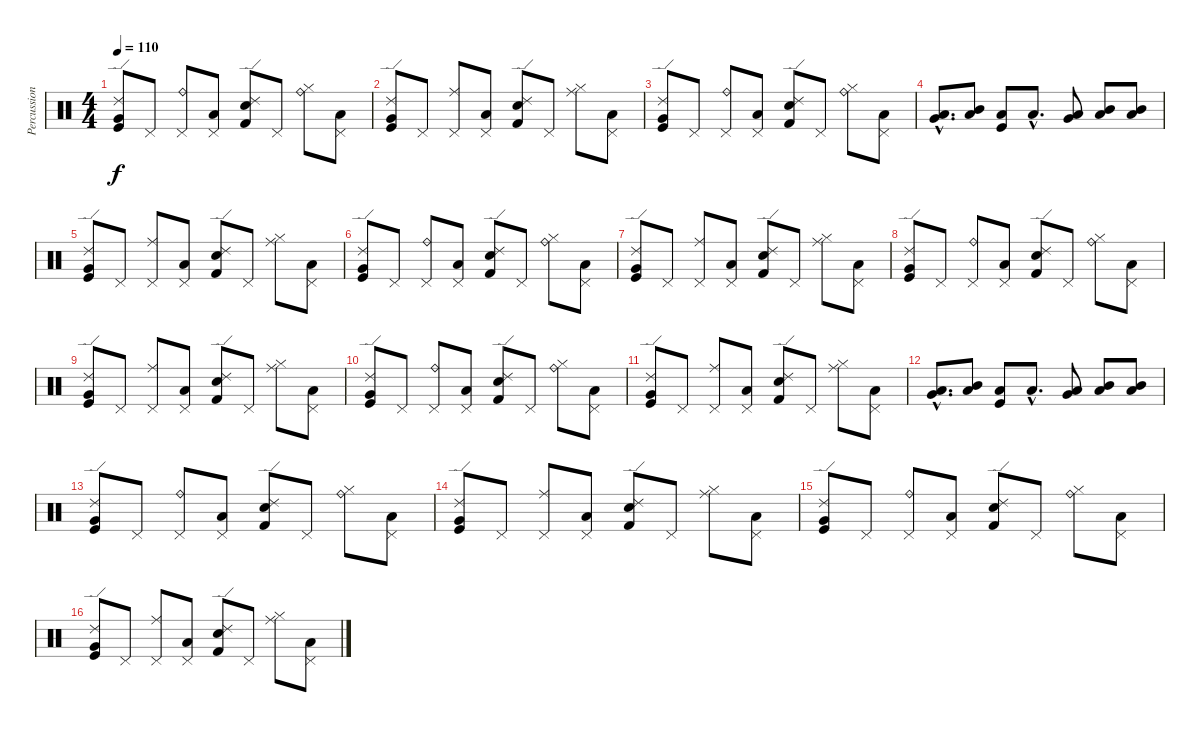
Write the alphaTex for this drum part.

\track ("Percussions" "Percussion") {instrument percussion}
\staff {score}
\articulation defaults
\ts (4 4)
\tempo 110
\clef neutral
\ks c
("Ride (edge) 2" "Very Low Tom (hit)" "Kick (hit)").8{dy f} "Pedal Hi-Hat (hit)".8 ("Ride (bell)" "Pedal Hi-Hat (hit)").8 ("Pedal Hi-Hat (hit)" "Low Tom (hit)").8 ("Ride (edge) 2" "Kick (hit) 2" "Snare (hit) 2").8 "Pedal Hi-Hat (hit)".8 ("Hi-Hat (closed)" "Ride (bell)").8 ("Pedal Hi-Hat (hit)" "Low Tom (hit)").8 |
("Ride (edge) 2" "Very Low Tom (hit)" "Kick (hit)").8 "Pedal Hi-Hat (hit)".8 ("Ride (middle)" "Pedal Hi-Hat (hit)").8 ("Pedal Hi-Hat (hit)" "Low Tom (hit)").8 ("Ride (edge) 2" "Kick (hit) 2" "Snare (hit) 2").8 "Pedal Hi-Hat (hit)".8 ("Hi-Hat (closed)" "Ride (middle)").8 ("Pedal Hi-Hat (hit)" "Low Tom (hit)").8 |
("Ride (edge) 2" "Very Low Tom (hit)" "Kick (hit)").8 "Pedal Hi-Hat (hit)".8 ("Ride (bell)" "Pedal Hi-Hat (hit)").8 ("Pedal Hi-Hat (hit)" "Low Tom (hit)").8 ("Ride (edge) 2" "Kick (hit) 2" "Snare (hit) 2").8 "Pedal Hi-Hat (hit)".8 ("Hi-Hat (closed)" "Ride (bell)").8 ("Pedal Hi-Hat (hit)" "Low Tom (hit)").8 |
("Low Tom (hit)"{hac} "Very Low Tom (hit)"{hac}).8{d} ("Mid Tom (hit)" "Low Tom (hit)").8 ("Low Tom (hit)" "Kick (hit)").8 "Low Floor Tom (hit)"{hac}.8{d} ("Very Low Tom (hit)" "Low Tom (hit)").8 ("Low Tom (hit)" "Mid Tom (hit)").8 ("Mid Tom (hit)" "Low Tom (hit)").8 |
("Ride (edge) 2" "Very Low Tom (hit)" "Kick (hit)").8 "Pedal Hi-Hat (hit)".8 ("Ride (middle)" "Pedal Hi-Hat (hit)").8 ("Pedal Hi-Hat (hit)" "Low Tom (hit)").8 ("Ride (edge) 2" "Kick (hit) 2" "Snare (hit) 2").8 "Pedal Hi-Hat (hit)".8 ("Hi-Hat (closed)" "Ride (middle)").8 ("Pedal Hi-Hat (hit)" "Low Tom (hit)").8 |
("Ride (edge) 2" "Very Low Tom (hit)" "Kick (hit)").8 "Pedal Hi-Hat (hit)".8 ("Ride (bell)" "Pedal Hi-Hat (hit)").8 ("Pedal Hi-Hat (hit)" "Low Tom (hit)").8 ("Ride (edge) 2" "Kick (hit) 2" "Snare (hit) 2").8 "Pedal Hi-Hat (hit)".8 ("Hi-Hat (closed)" "Ride (bell)").8 ("Pedal Hi-Hat (hit)" "Low Tom (hit)").8 |
("Ride (edge) 2" "Very Low Tom (hit)" "Kick (hit)").8 "Pedal Hi-Hat (hit)".8 ("Ride (middle)" "Pedal Hi-Hat (hit)").8 ("Pedal Hi-Hat (hit)" "Low Tom (hit)").8 ("Ride (edge) 2" "Kick (hit) 2" "Snare (hit) 2").8 "Pedal Hi-Hat (hit)".8 ("Hi-Hat (closed)" "Ride (middle)").8 ("Pedal Hi-Hat (hit)" "Low Tom (hit)").8 |
("Ride (edge) 2" "Very Low Tom (hit)" "Kick (hit)").8 "Pedal Hi-Hat (hit)".8 ("Ride (bell)" "Pedal Hi-Hat (hit)").8 ("Pedal Hi-Hat (hit)" "Low Tom (hit)").8 ("Ride (edge) 2" "Kick (hit) 2" "Snare (hit) 2").8 "Pedal Hi-Hat (hit)".8 ("Hi-Hat (closed)" "Ride (bell)").8 ("Pedal Hi-Hat (hit)" "Low Tom (hit)").8 |
("Ride (edge) 2" "Very Low Tom (hit)" "Kick (hit)").8 "Pedal Hi-Hat (hit)".8 ("Ride (middle)" "Pedal Hi-Hat (hit)").8 ("Pedal Hi-Hat (hit)" "Low Tom (hit)").8 ("Ride (edge) 2" "Kick (hit) 2" "Snare (hit) 2").8 "Pedal Hi-Hat (hit)".8 ("Hi-Hat (closed)" "Ride (middle)").8 ("Pedal Hi-Hat (hit)" "Low Tom (hit)").8 |
("Ride (edge) 2" "Very Low Tom (hit)" "Kick (hit)").8 "Pedal Hi-Hat (hit)".8 ("Ride (bell)" "Pedal Hi-Hat (hit)").8 ("Pedal Hi-Hat (hit)" "Low Tom (hit)").8 ("Ride (edge) 2" "Kick (hit) 2" "Snare (hit) 2").8 "Pedal Hi-Hat (hit)".8 ("Hi-Hat (closed)" "Ride (bell)").8 ("Pedal Hi-Hat (hit)" "Low Tom (hit)").8 |
("Ride (edge) 2" "Very Low Tom (hit)" "Kick (hit)").8 "Pedal Hi-Hat (hit)".8 ("Ride (middle)" "Pedal Hi-Hat (hit)").8 ("Pedal Hi-Hat (hit)" "Low Tom (hit)").8 ("Ride (edge) 2" "Kick (hit) 2" "Snare (hit) 2").8 "Pedal Hi-Hat (hit)".8 ("Hi-Hat (closed)" "Ride (middle)").8 ("Pedal Hi-Hat (hit)" "Low Tom (hit)").8 |
("Low Tom (hit)"{hac} "Very Low Tom (hit)"{hac}).8{d} ("Mid Tom (hit)" "Low Tom (hit)").8 ("Low Tom (hit)" "Kick (hit)").8 "Low Floor Tom (hit)"{hac}.8{d} ("Very Low Tom (hit)" "Low Tom (hit)").8 ("Low Tom (hit)" "Mid Tom (hit)").8 ("Mid Tom (hit)" "Low Tom (hit)").8 |
("Ride (edge) 2" "Very Low Tom (hit)" "Kick (hit)").8 "Pedal Hi-Hat (hit)".8 ("Ride (bell)" "Pedal Hi-Hat (hit)").8 ("Pedal Hi-Hat (hit)" "Low Tom (hit)").8 ("Ride (edge) 2" "Kick (hit) 2" "Snare (hit) 2").8 "Pedal Hi-Hat (hit)".8 ("Hi-Hat (closed)" "Ride (bell)").8 ("Pedal Hi-Hat (hit)" "Low Tom (hit)").8 |
("Ride (edge) 2" "Very Low Tom (hit)" "Kick (hit)").8 "Pedal Hi-Hat (hit)".8 ("Ride (middle)" "Pedal Hi-Hat (hit)").8 ("Pedal Hi-Hat (hit)" "Low Tom (hit)").8 ("Ride (edge) 2" "Kick (hit) 2" "Snare (hit) 2").8 "Pedal Hi-Hat (hit)".8 ("Hi-Hat (closed)" "Ride (middle)").8 ("Pedal Hi-Hat (hit)" "Low Tom (hit)").8 |
("Ride (edge) 2" "Very Low Tom (hit)" "Kick (hit)").8 "Pedal Hi-Hat (hit)".8 ("Ride (bell)" "Pedal Hi-Hat (hit)").8 ("Pedal Hi-Hat (hit)" "Low Tom (hit)").8 ("Ride (edge) 2" "Kick (hit) 2" "Snare (hit) 2").8 "Pedal Hi-Hat (hit)".8 ("Hi-Hat (closed)" "Ride (bell)").8 ("Pedal Hi-Hat (hit)" "Low Tom (hit)").8 |
("Ride (edge) 2" "Very Low Tom (hit)" "Kick (hit)").8 "Pedal Hi-Hat (hit)".8 ("Ride (middle)" "Pedal Hi-Hat (hit)").8 ("Pedal Hi-Hat (hit)" "Low Tom (hit)").8 ("Ride (edge) 2" "Kick (hit) 2" "Snare (hit) 2").8 "Pedal Hi-Hat (hit)".8 ("Hi-Hat (closed)" "Ride (middle)").8 ("Pedal Hi-Hat (hit)" "Low Tom (hit)").8
